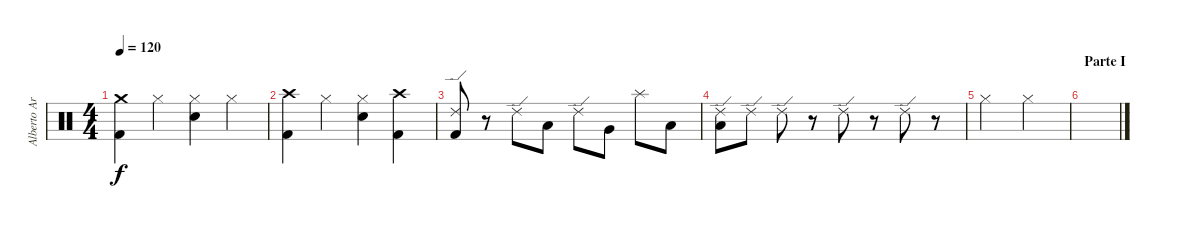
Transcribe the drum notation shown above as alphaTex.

\track ("Alberto Ardines (Batería)" "Alberto Ar") {instrument percussion}
\staff {score}
\articulation defaults
\ts (4 4)
\tempo 120
\clef neutral
\ks c
("Crash medium (hit)" "Kick (hit) 2").4{dy f} "Hi-Hat (closed)".4 ("Hi-Hat (closed)" "Electric Snare (hit)").4 "Hi-Hat (closed)".4 |
("Crash high (hit)" "Kick (hit) 2").4 "Hi-Hat (closed)".4 ("Hi-Hat (closed)" "Electric Snare (hit)").4 ("Crash high (hit)" "Kick (hit) 2").4 |
("Ride (edge) 2" "Kick (hit) 2").8 r.8 "Ride (edge) 2".8 "Low Tom (hit)".8 "Ride (edge) 2".8 "Very Low Tom (hit)".8 "Splash (hit)".8 "Low Floor Tom (hit)".8 |
("Ride (edge) 2" "Low Floor Tom (hit)").8 "Ride (edge) 2".8 "Ride (edge) 2".8 r.8 "Ride (edge) 2".8 r.8 "Ride (edge) 2".8 r.8 |
"Hi-Hat (closed)".2 "Hi-Hat (closed)".2 |
\section ("" "Parte I ")
